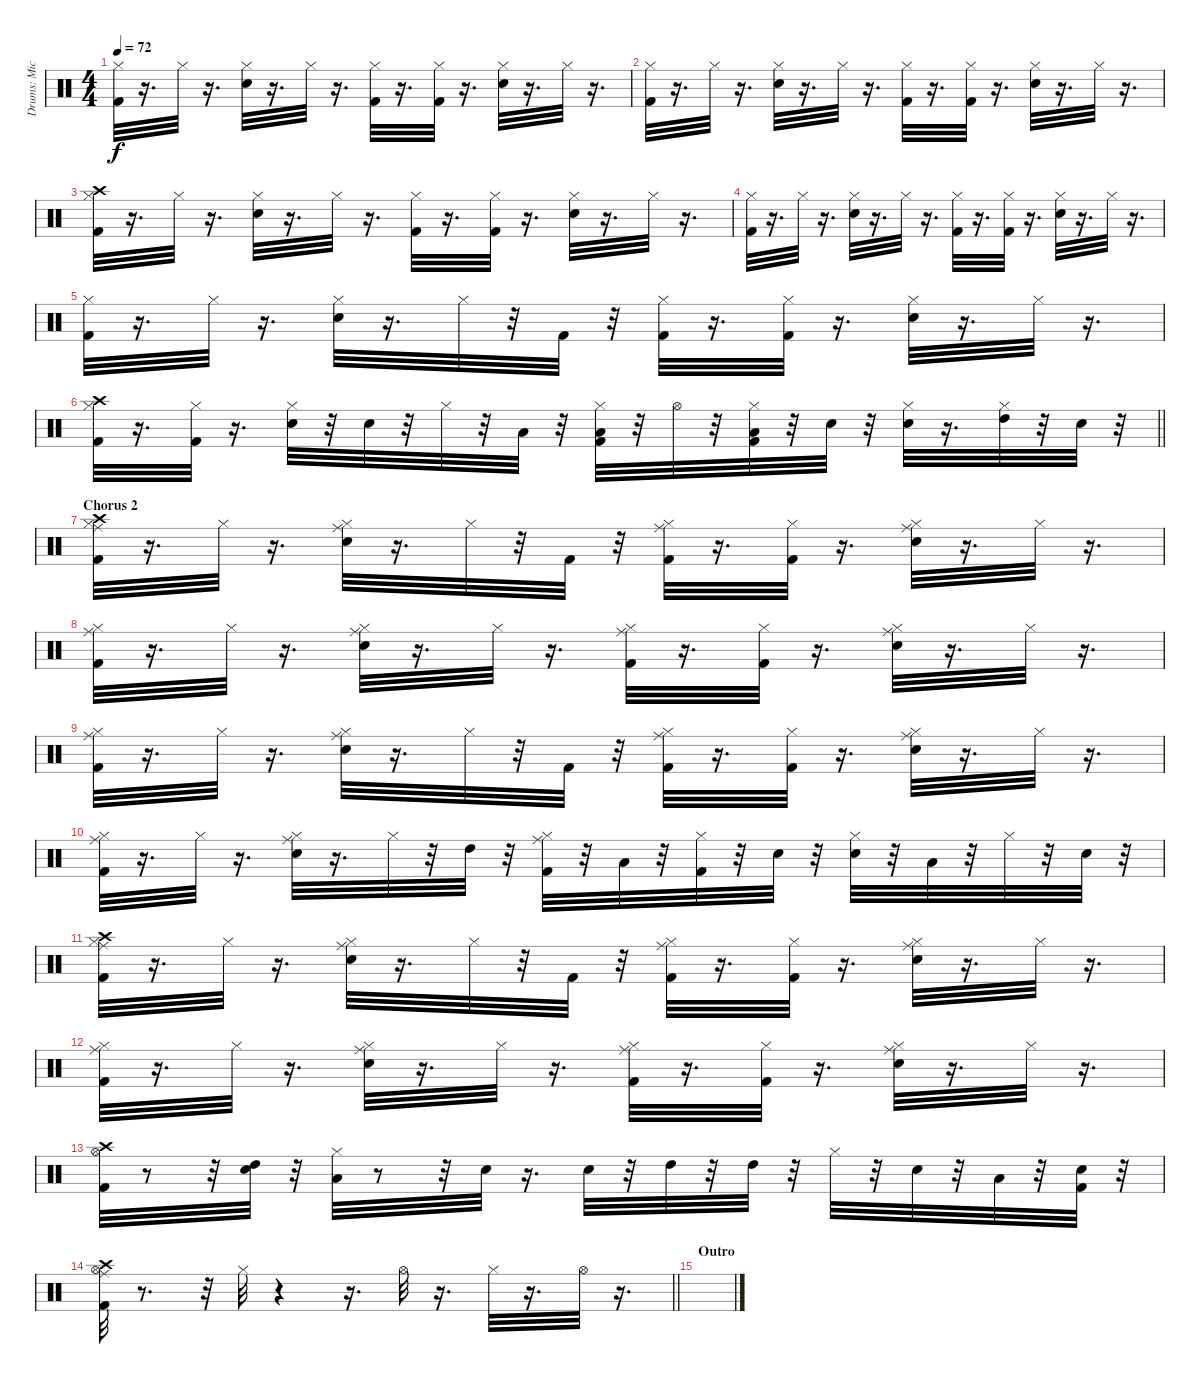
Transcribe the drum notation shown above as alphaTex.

\track ("Drums: Michael Botts" "Drums: Mic") {instrument percussion}
\staff {score}
\articulation defaults
\ts (4 4)
\tempo 72
\clef neutral
\ks c
("Kick (hit) 2" "Hi-Hat (closed)").32{dy f} r.16{d} "Hi-Hat (closed)".32 r.16{d} ("Snare (hit) 2" "Hi-Hat (closed)").32 r.16{d} "Hi-Hat (closed)".32 r.16{d} ("Kick (hit) 2" "Hi-Hat (closed)").32 r.16{d} ("Kick (hit) 2" "Hi-Hat (closed)").32 r.16{d} ("Snare (hit) 2" "Hi-Hat (closed)").32 r.16{d} "Hi-Hat (closed)".32 r.16{d} |
("Kick (hit) 2" "Hi-Hat (closed)").32 r.16{d} "Hi-Hat (closed)".32 r.16{d} ("Snare (hit) 2" "Hi-Hat (closed)").32 r.16{d} "Hi-Hat (closed)".32 r.16{d} ("Kick (hit) 2" "Hi-Hat (closed)").32 r.16{d} ("Kick (hit) 2" "Hi-Hat (closed)").32 r.16{d} ("Snare (hit) 2" "Hi-Hat (closed)").32 r.16{d} "Hi-Hat (closed)".32 r.16{d} |
("Kick (hit) 2" "Hi-Hat (closed)" "Crash high (hit)").32 r.16{d} "Hi-Hat (closed)".32 r.16{d} ("Snare (hit) 2" "Hi-Hat (closed)").32 r.16{d} "Hi-Hat (closed)".32 r.16{d} ("Kick (hit) 2" "Hi-Hat (closed)").32 r.16{d} ("Kick (hit) 2" "Hi-Hat (closed)").32 r.16{d} ("Snare (hit) 2" "Hi-Hat (closed)").32 r.16{d} "Hi-Hat (closed)".32 r.16{d} |
("Kick (hit) 2" "Hi-Hat (closed)").32 r.16{d} "Hi-Hat (closed)".32 r.16{d} ("Snare (hit) 2" "Hi-Hat (closed)").32 r.16{d} "Hi-Hat (closed)".32 r.16{d} ("Kick (hit) 2" "Hi-Hat (closed)").32 r.16{d} ("Kick (hit) 2" "Hi-Hat (closed)").32 r.16{d} ("Snare (hit) 2" "Hi-Hat (closed)").32 r.16{d} "Hi-Hat (closed)".32 r.16{d} |
("Kick (hit) 2" "Hi-Hat (closed)").32 r.16{d} "Hi-Hat (closed)".32 r.16{d} ("Snare (hit) 2" "Hi-Hat (closed)").32 r.16{d} "Hi-Hat (closed)".32 r.32 "Kick (hit) 2".32 r.32 ("Kick (hit) 2" "Hi-Hat (closed)").32 r.16{d} ("Kick (hit) 2" "Hi-Hat (closed)").32 r.16{d} ("Snare (hit) 2" "Hi-Hat (closed)").32 r.16{d} "Hi-Hat (closed)".32 r.16{d} |
\barLineRight lightlight
("Kick (hit) 2" "Hi-Hat (closed)" "Crash high (hit)").32 r.16{d} ("Kick (hit) 2" "Hi-Hat (closed)").32 r.16{d} ("Snare (hit) 2" "Hi-Hat (closed)").32 r.32 "Snare (hit) 2".32 r.32 "Hi-Hat (closed)".32 r.32 "Low Tom (hit)".32 r.32 ("Kick (hit) 2" "Hi-Hat (closed)" "Low Tom (hit)").32 r.32 "Hi-Hat (open)".32 r.32 ("Kick (hit) 2" "Hi-Hat (closed)" "Low Floor Tom (hit)").32 r.32 "Snare (hit) 2".32 r.32 ("Snare (hit) 2" "Hi-Hat (closed)").32 r.16{d} ("Hi-Hat (closed)" "High Tom (hit)").32 r.32 "Snare (hit) 2".32 r.32 |
\section ("" "Chorus 2")
("Kick (hit) 2" "Hi-Hat (closed)" "Crash high (hit)" "Ride (middle)").32 r.16{d} "Hi-Hat (closed)".32 r.16{d} ("Snare (hit) 2" "Hi-Hat (closed)" "Ride (middle)").32 r.16{d} "Hi-Hat (closed)".32 r.32 "Kick (hit) 2".32 r.32 ("Kick (hit) 2" "Hi-Hat (closed)" "Ride (middle)").32 r.16{d} ("Kick (hit) 2" "Hi-Hat (closed)").32 r.16{d} ("Snare (hit) 2" "Hi-Hat (closed)" "Ride (middle)").32 r.16{d} "Hi-Hat (closed)".32 r.16{d} |
("Kick (hit) 2" "Hi-Hat (closed)" "Ride (middle)").32 r.16{d} "Hi-Hat (closed)".32 r.16{d} ("Snare (hit) 2" "Hi-Hat (closed)" "Ride (middle)").32 r.16{d} "Hi-Hat (closed)".32 r.16{d} ("Kick (hit) 2" "Hi-Hat (closed)" "Ride (middle)").32 r.16{d} ("Kick (hit) 2" "Hi-Hat (closed)").32 r.16{d} ("Snare (hit) 2" "Hi-Hat (closed)" "Ride (middle)").32 r.16{d} "Hi-Hat (closed)".32 r.16{d} |
("Kick (hit) 2" "Hi-Hat (closed)" "Ride (middle)").32 r.16{d} "Hi-Hat (closed)".32 r.16{d} ("Snare (hit) 2" "Hi-Hat (closed)" "Ride (middle)").32 r.16{d} "Hi-Hat (closed)".32 r.32 "Kick (hit) 2".32 r.32 ("Kick (hit) 2" "Hi-Hat (closed)" "Ride (middle)").32 r.16{d} ("Kick (hit) 2" "Hi-Hat (closed)").32 r.16{d} ("Snare (hit) 2" "Hi-Hat (closed)" "Ride (middle)").32 r.16{d} "Hi-Hat (closed)".32 r.16{d} |
("Kick (hit) 2" "Hi-Hat (closed)" "Ride (middle)").32 r.16{d} "Hi-Hat (closed)".32 r.16{d} ("Snare (hit) 2" "Hi-Hat (closed)" "Ride (middle)").32 r.16{d} "Hi-Hat (closed)".32 r.32 "High Tom (hit)".32 r.32 ("Kick (hit) 2" "Hi-Hat (closed)" "Ride (middle)").32 r.32 "Low Tom (hit)".32 r.32 ("Kick (hit) 2" "Hi-Hat (closed)").32 r.32 "Snare (hit) 2".32 r.32 ("Snare (hit) 2" "Hi-Hat (closed)").32 r.32 "Low Floor Tom (hit)".32 r.32 "Hi-Hat (closed)".32 r.32 "Snare (hit) 2".32 r.32 |
("Kick (hit) 2" "Hi-Hat (closed)" "Crash high (hit)" "Ride (middle)").32 r.16{d} "Hi-Hat (closed)".32 r.16{d} ("Snare (hit) 2" "Hi-Hat (closed)" "Ride (middle)").32 r.16{d} "Hi-Hat (closed)".32 r.32 "Kick (hit) 2".32 r.32 ("Kick (hit) 2" "Hi-Hat (closed)" "Ride (middle)").32 r.16{d} ("Kick (hit) 2" "Hi-Hat (closed)").32 r.16{d} ("Snare (hit) 2" "Hi-Hat (closed)" "Ride (middle)").32 r.16{d} "Hi-Hat (closed)".32 r.16{d} |
("Kick (hit) 2" "Hi-Hat (closed)" "Ride (middle)").32 r.16{d} "Hi-Hat (closed)".32 r.16{d} ("Snare (hit) 2" "Hi-Hat (closed)" "Ride (middle)").32 r.16{d} "Hi-Hat (closed)".32 r.16{d} ("Kick (hit) 2" "Hi-Hat (closed)" "Ride (middle)").32 r.16{d} ("Kick (hit) 2" "Hi-Hat (closed)").32 r.16{d} ("Snare (hit) 2" "Hi-Hat (closed)" "Ride (middle)").32 r.16{d} "Hi-Hat (closed)".32 r.16{d} |
("Kick (hit) 2" "Crash high (hit)" "Hi-Hat (open)").32 r.8 r.32 ("Snare (hit) 2" "High Tom (hit)").32 r.32 ("Hi-Hat (closed)" "Low Tom (hit)").32 r.8 r.32 "Snare (hit) 2".32 r.16{d} "Snare (hit) 2".32 r.32 "High Tom (hit)".32 r.32 "High Tom (hit)".32 r.32 "Hi-Hat (closed)".32 r.32 "Snare (hit) 2".32 r.32 "Low Floor Tom (hit)".32 r.32 ("Kick (hit) 2" "Snare (hit) 2").32 r.32 |
\barLineRight lightlight
("Kick (hit) 2" "Crash high (hit)" "Ride (middle)" "Hi-Hat (open)").32 r.8{d} r.32 "Hi-Hat (closed)".32 r.4 r.16{d} "Hi-Hat (open)".32 r.16{d} "Hi-Hat (closed)".32 r.16{d} "Hi-Hat (open)".32 r.16{d} |
\section ("" "Outro")
